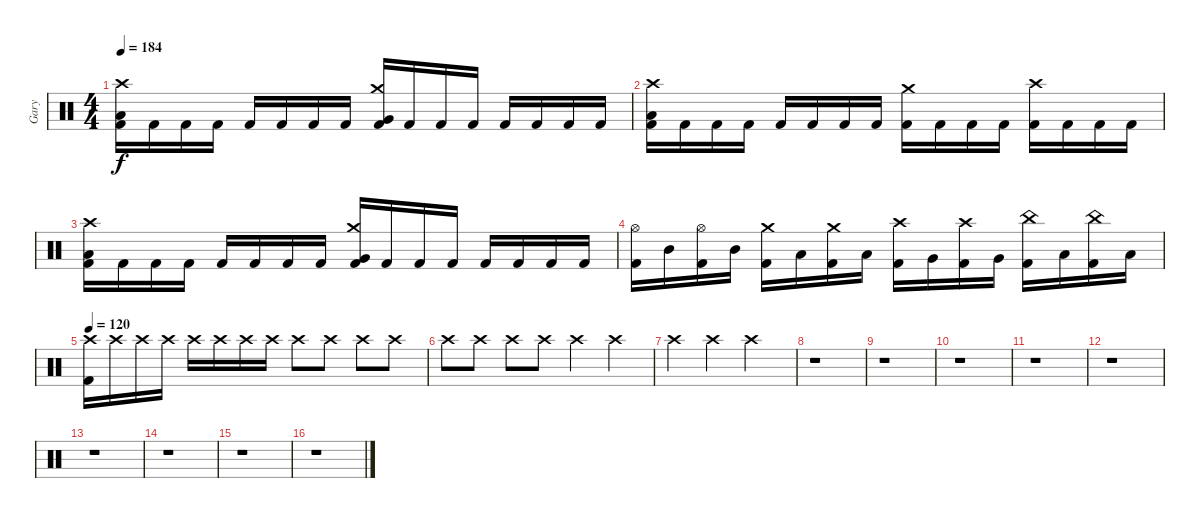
\track ("Gary" "Gary") {instrument percussion}
\staff {score}
\articulation defaults
\ts (4 4)
\tempo 184
\clef neutral
\ks c
("Crash high (hit)" "Low Floor Tom (hit)" "Kick (hit) 2").16{dy f} "Kick (hit) 2".16 "Kick (hit) 2".16 "Kick (hit) 2".16 "Kick (hit) 2".16 "Kick (hit) 2".16 "Kick (hit) 2".16 "Kick (hit) 2".16 ("Crash medium (hit)" "Very Low Tom (hit)" "Kick (hit) 2").16 "Kick (hit) 2".16 "Kick (hit) 2".16 "Kick (hit) 2".16 "Kick (hit) 2".16 "Kick (hit) 2".16 "Kick (hit) 2".16 "Kick (hit) 2".16 |
("Crash high (hit)" "Low Floor Tom (hit)" "Kick (hit) 2").16 "Kick (hit) 2".16 "Kick (hit) 2".16 "Kick (hit) 2".16 "Kick (hit) 2".16 "Kick (hit) 2".16 "Kick (hit) 2".16 "Kick (hit) 2".16 ("Crash medium (hit)" "Kick (hit) 2").16 "Kick (hit) 2".16 "Kick (hit) 2".16 "Kick (hit) 2".16 ("Crash high (hit)" "Kick (hit) 2").16 "Kick (hit) 2".16 "Kick (hit) 2".16 "Kick (hit) 2".16 |
("Crash high (hit)" "Low Floor Tom (hit)" "Kick (hit) 2").16 "Kick (hit) 2".16 "Kick (hit) 2".16 "Kick (hit) 2".16 "Kick (hit) 2".16 "Kick (hit) 2".16 "Kick (hit) 2".16 "Kick (hit) 2".16 ("Crash medium (hit)" "Very Low Tom (hit)" "Kick (hit) 2").16 "Kick (hit) 2".16 "Kick (hit) 2".16 "Kick (hit) 2".16 "Kick (hit) 2".16 "Kick (hit) 2".16 "Kick (hit) 2".16 "Kick (hit) 2".16 |
("Hi-Hat (open)" "Kick (hit) 2").16 "Mid Tom (hit)".16 ("Hi-Hat (open)" "Kick (hit) 2").16 "Mid Tom (hit)".16 ("Crash medium (hit)" "Kick (hit) 2").16 "Low Tom (hit)".16 ("Crash medium (hit)" "Kick (hit) 2").16 "Low Tom (hit)".16 ("Crash high (hit)" "Kick (hit) 2").16 "Very Low Tom (hit)".16 ("Crash high (hit)" "Kick (hit) 2").16 "Very Low Tom (hit)".16 ("China (hit)" "Kick (hit) 2").16 "Low Floor Tom (hit)".16 ("China (hit)" "Kick (hit) 2").16 "Low Floor Tom (hit)".16 |
\tempo 120
("Crash high (hit)" "Kick (hit) 2").16 "Crash high (hit)".16 "Crash high (hit)".16 "Crash high (hit)".16 "Crash high (hit)".16 "Crash high (hit)".16 "Crash high (hit)".16 "Crash high (hit)".16 "Crash high (hit)".8 "Crash high (hit)".8 "Crash high (hit)".8 "Crash high (hit)".8 |
"Crash high (hit)".8 "Crash high (hit)".8 "Crash high (hit)".8 "Crash high (hit)".8 "Crash high (hit)".4 "Crash high (hit)".4 |
"Crash high (hit)".4 "Crash high (hit)".4 "Crash high (hit)".2 |
r.1 |
r.1 |
r.1 |
r.1 |
r.1 |
r.1 |
r.1 |
r.1 |
r.1
